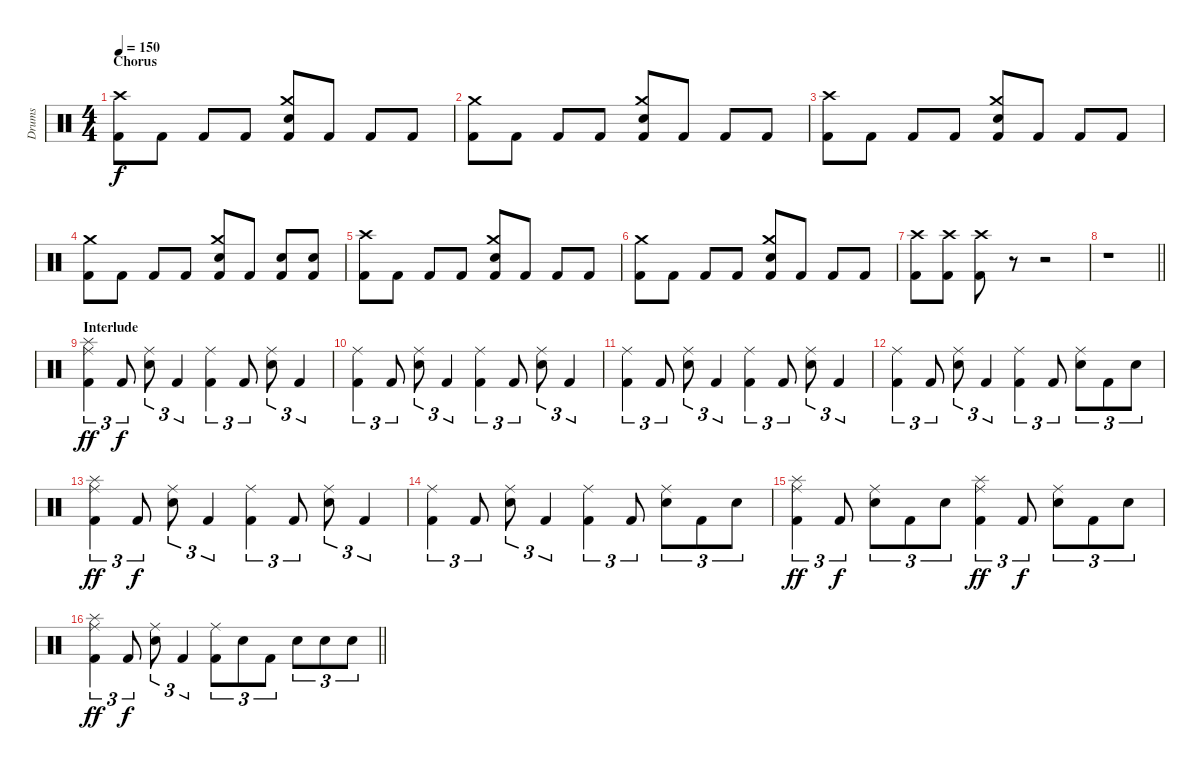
\track ("Drums" "Drums") {instrument percussion}
\staff {score}
\articulation defaults
\ts (4 4)
\section ("" "Chorus")
\tempo 150
\clef neutral
\ks c
("Crash high (hit)" "Kick (hit) 2").8{dy f} "Kick (hit) 2".8 "Kick (hit) 2".8 "Kick (hit) 2".8 ("Crash medium (hit)" "Electric Snare (hit)" "Kick (hit) 2").8 "Kick (hit) 2".8 "Kick (hit) 2".8 "Kick (hit) 2".8 |
("Crash medium (hit)" "Kick (hit) 2").8 "Kick (hit) 2".8 "Kick (hit) 2".8 "Kick (hit) 2".8 ("Crash medium (hit)" "Electric Snare (hit)" "Kick (hit) 2").8 "Kick (hit) 2".8 "Kick (hit) 2".8 "Kick (hit) 2".8 |
("Crash high (hit)" "Kick (hit) 2").8 "Kick (hit) 2".8 "Kick (hit) 2".8 "Kick (hit) 2".8 ("Crash medium (hit)" "Electric Snare (hit)" "Kick (hit) 2").8 "Kick (hit) 2".8 "Kick (hit) 2".8 "Kick (hit) 2".8 |
("Crash medium (hit)" "Kick (hit) 2").8 "Kick (hit) 2".8 "Kick (hit) 2".8 "Kick (hit) 2".8 ("Crash medium (hit)" "Electric Snare (hit)" "Kick (hit) 2").8 "Kick (hit) 2".8 ("Electric Snare (hit)" "Kick (hit) 2").8 ("Electric Snare (hit)" "Kick (hit) 2").8 |
("Crash high (hit)" "Kick (hit) 2").8 "Kick (hit) 2".8 "Kick (hit) 2".8 "Kick (hit) 2".8 ("Crash medium (hit)" "Electric Snare (hit)" "Kick (hit) 2").8 "Kick (hit) 2".8 "Kick (hit) 2".8 "Kick (hit) 2".8 |
("Crash medium (hit)" "Kick (hit) 2").8 "Kick (hit) 2".8 "Kick (hit) 2".8 "Kick (hit) 2".8 ("Crash medium (hit)" "Electric Snare (hit)" "Kick (hit) 2").8 "Kick (hit) 2".8 "Kick (hit) 2".8 "Kick (hit) 2".8 |
("Crash high (hit)" "Kick (hit) 2").8 ("Crash high (hit)" "Kick (hit) 2").8 ("Crash high (hit)" "Kick (hit) 2").8 r.8{volume 0} r.2 |
\barLineRight lightlight
r.1 |
\section ("" "Interlude")
("Splash (hit)" "Ride (middle)" "Kick (hit) 2").4{tu (3 2) dy ff volume 11} "Kick (hit) 2".8{tu (3 2) dy f} ("Ride (middle)" "Electric Snare (hit)").8{tu (3 2)} "Kick (hit) 2".4{tu (3 2)} ("Ride (middle)" "Kick (hit) 2").4{tu (3 2)} "Kick (hit) 2".8{tu (3 2)} ("Ride (middle)" "Electric Snare (hit)").8{tu (3 2)} "Kick (hit) 2".4{tu (3 2)} |
("Ride (middle)" "Kick (hit) 2").4{tu (3 2)} "Kick (hit) 2".8{tu (3 2)} ("Ride (middle)" "Electric Snare (hit)").8{tu (3 2)} "Kick (hit) 2".4{tu (3 2)} ("Ride (middle)" "Kick (hit) 2").4{tu (3 2)} "Kick (hit) 2".8{tu (3 2)} ("Ride (middle)" "Electric Snare (hit)").8{tu (3 2)} "Kick (hit) 2".4{tu (3 2)} |
("Ride (middle)" "Kick (hit) 2").4{tu (3 2)} "Kick (hit) 2".8{tu (3 2)} ("Ride (middle)" "Electric Snare (hit)").8{tu (3 2)} "Kick (hit) 2".4{tu (3 2)} ("Ride (middle)" "Kick (hit) 2").4{tu (3 2)} "Kick (hit) 2".8{tu (3 2)} ("Ride (middle)" "Electric Snare (hit)").8{tu (3 2)} "Kick (hit) 2".4{tu (3 2)} |
("Ride (middle)" "Kick (hit) 2").4{tu (3 2)} "Kick (hit) 2".8{tu (3 2)} ("Ride (middle)" "Electric Snare (hit)").8{tu (3 2)} "Kick (hit) 2".4{tu (3 2)} ("Ride (middle)" "Kick (hit) 2").4{tu (3 2)} "Kick (hit) 2".8{tu (3 2)} ("Ride (middle)" "Electric Snare (hit)").8{tu (3 2)} "Kick (hit) 2".8{tu (3 2)} "Electric Snare (hit)".8{tu (3 2)} |
("Splash (hit)" "Ride (middle)" "Kick (hit) 2").4{tu (3 2) dy ff} "Kick (hit) 2".8{tu (3 2) dy f} ("Ride (middle)" "Electric Snare (hit)").8{tu (3 2)} "Kick (hit) 2".4{tu (3 2)} ("Ride (middle)" "Kick (hit) 2").4{tu (3 2)} "Kick (hit) 2".8{tu (3 2)} ("Ride (middle)" "Electric Snare (hit)").8{tu (3 2)} "Kick (hit) 2".4{tu (3 2)} |
("Ride (middle)" "Kick (hit) 2").4{tu (3 2)} "Kick (hit) 2".8{tu (3 2)} ("Ride (middle)" "Electric Snare (hit)").8{tu (3 2)} "Kick (hit) 2".4{tu (3 2)} ("Ride (middle)" "Kick (hit) 2").4{tu (3 2)} "Kick (hit) 2".8{tu (3 2)} ("Ride (middle)" "Electric Snare (hit)").8{tu (3 2)} "Kick (hit) 2".8{tu (3 2)} "Electric Snare (hit)".8{tu (3 2)} |
("Splash (hit)" "Ride (middle)" "Kick (hit) 2").4{tu (3 2) dy ff} "Kick (hit) 2".8{tu (3 2) dy f} ("Ride (middle)" "Electric Snare (hit)").8{tu (3 2)} "Kick (hit) 2".8{tu (3 2)} "Electric Snare (hit)".8{tu (3 2)} ("Splash (hit)" "Ride (middle)" "Kick (hit) 2").4{tu (3 2) dy ff} "Kick (hit) 2".8{tu (3 2) dy f} ("Ride (middle)" "Electric Snare (hit)").8{tu (3 2)} "Kick (hit) 2".8{tu (3 2)} "Electric Snare (hit)".8{tu (3 2)} |
\barLineRight lightlight
("Splash (hit)" "Ride (middle)" "Kick (hit) 2").4{tu (3 2) dy ff} "Kick (hit) 2".8{tu (3 2) dy f} ("Ride (middle)" "Electric Snare (hit)").8{tu (3 2)} "Kick (hit) 2".4{tu (3 2)} ("Ride (middle)" "Kick (hit) 2").8{tu (3 2)} "Electric Snare (hit)".8{tu (3 2)} "Kick (hit) 2".8{tu (3 2)} "Electric Snare (hit)".8{tu (3 2)} "Electric Snare (hit)".8{tu (3 2)} "Electric Snare (hit)".8{tu (3 2)}
